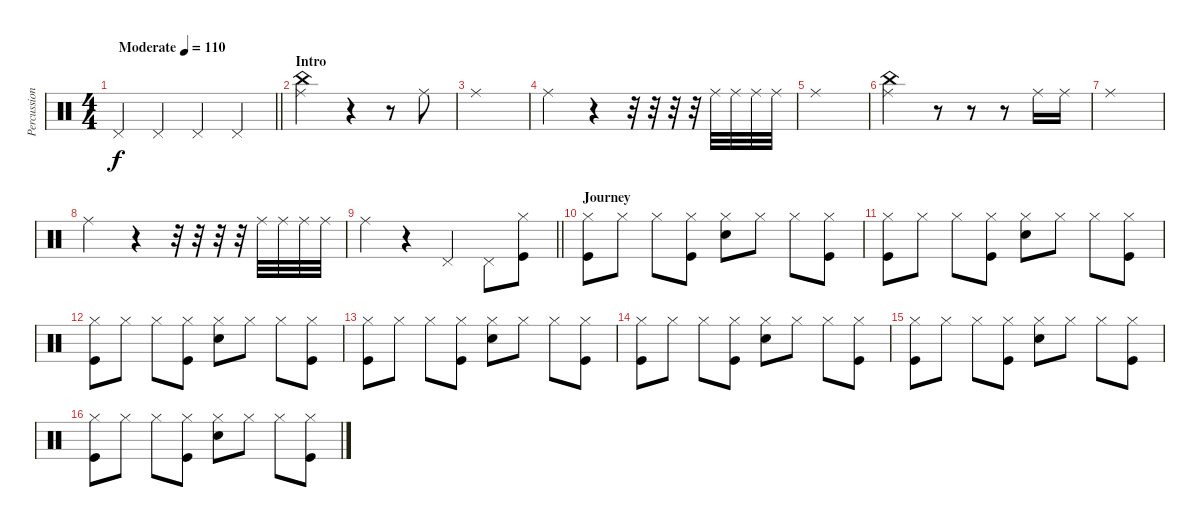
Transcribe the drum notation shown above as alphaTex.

\track ("Percussion" "Percussion") {instrument percussion}
\staff {score}
\articulation defaults
\ts (4 4)
\tempo (110 "Moderate")
\clef neutral
\barLineRight lightlight
\ks c "Pedal Hi-Hat (hit)".4{dy f} "Pedal Hi-Hat (hit)".4 "Pedal Hi-Hat (hit)".4 "Pedal Hi-Hat (hit)".4
|
\section ("" "Intro")
("China (hit)" "Ride (middle)").2 r.4 r.8 "Ride (middle)".8 |
"Ride (middle)".1 |
"Ride (middle)".2 r.4 r.32 r.32 r.32 r.32 "Ride (middle)".32 "Ride (middle)".32 "Ride (middle)".32 "Ride (middle)".32 |
"Ride (middle)".1 |
("Ride (middle)" "China (hit)").2 r.8 r.8 r.8 "Ride (middle)".16 "Ride (middle)".16 |
"Ride (middle)".1 |
"Ride (middle)".2 r.4 r.32 r.32 r.32 r.32 "Ride (middle)".32 "Ride (middle)".32 "Ride (middle)".32 "Ride (middle)".32 |
\barLineRight lightlight "Ride (middle)".4
r.4 "Pedal Hi-Hat (hit)".4 "Pedal Hi-Hat (hit)".8 ("Hi-Hat (closed)" "Kick (hit)").8 |
\section ("" "Journey")
("Hi-Hat (closed)" "Kick (hit)").8 "Hi-Hat (closed)".8 "Hi-Hat (closed)".8 ("Hi-Hat (closed)" "Kick (hit)").8 ("Hi-Hat (closed)" "Snare (hit) 2").8 "Hi-Hat (closed)".8 "Hi-Hat (closed)".8 ("Hi-Hat (closed)" "Kick (hit)").8 |
("Hi-Hat (closed)" "Kick (hit)").8 "Hi-Hat (closed)".8 "Hi-Hat (closed)".8 ("Hi-Hat (closed)" "Kick (hit)").8 ("Hi-Hat (closed)" "Snare (hit) 2").8 "Hi-Hat (closed)".8 "Hi-Hat (closed)".8 ("Hi-Hat (closed)" "Kick (hit)").8 |
("Hi-Hat (closed)" "Kick (hit)").8 "Hi-Hat (closed)".8 "Hi-Hat (closed)".8 ("Hi-Hat (closed)" "Kick (hit)").8 ("Hi-Hat (closed)" "Snare (hit) 2").8 "Hi-Hat (closed)".8 "Hi-Hat (closed)".8 ("Hi-Hat (closed)" "Kick (hit)").8 |
("Hi-Hat (closed)" "Kick (hit)").8 "Hi-Hat (closed)".8 "Hi-Hat (closed)".8 ("Hi-Hat (closed)" "Kick (hit)").8 ("Hi-Hat (closed)" "Snare (hit) 2").8 "Hi-Hat (closed)".8 "Hi-Hat (closed)".8 ("Hi-Hat (closed)" "Kick (hit)").8 |
("Hi-Hat (closed)" "Kick (hit)").8 "Hi-Hat (closed)".8 "Hi-Hat (closed)".8 ("Hi-Hat (closed)" "Kick (hit)").8 ("Hi-Hat (closed)" "Snare (hit) 2").8 "Hi-Hat (closed)".8 "Hi-Hat (closed)".8 ("Hi-Hat (closed)" "Kick (hit)").8 |
("Hi-Hat (closed)" "Kick (hit)").8 "Hi-Hat (closed)".8 "Hi-Hat (closed)".8 ("Hi-Hat (closed)" "Kick (hit)").8 ("Hi-Hat (closed)" "Snare (hit) 2").8 "Hi-Hat (closed)".8 "Hi-Hat (closed)".8 ("Hi-Hat (closed)" "Kick (hit)").8 |
("Hi-Hat (closed)" "Kick (hit)").8 "Hi-Hat (closed)".8 "Hi-Hat (closed)".8 ("Hi-Hat (closed)" "Kick (hit)").8 ("Hi-Hat (closed)" "Snare (hit) 2").8 "Hi-Hat (closed)".8 "Hi-Hat (closed)".8 ("Hi-Hat (closed)" "Kick (hit)").8
